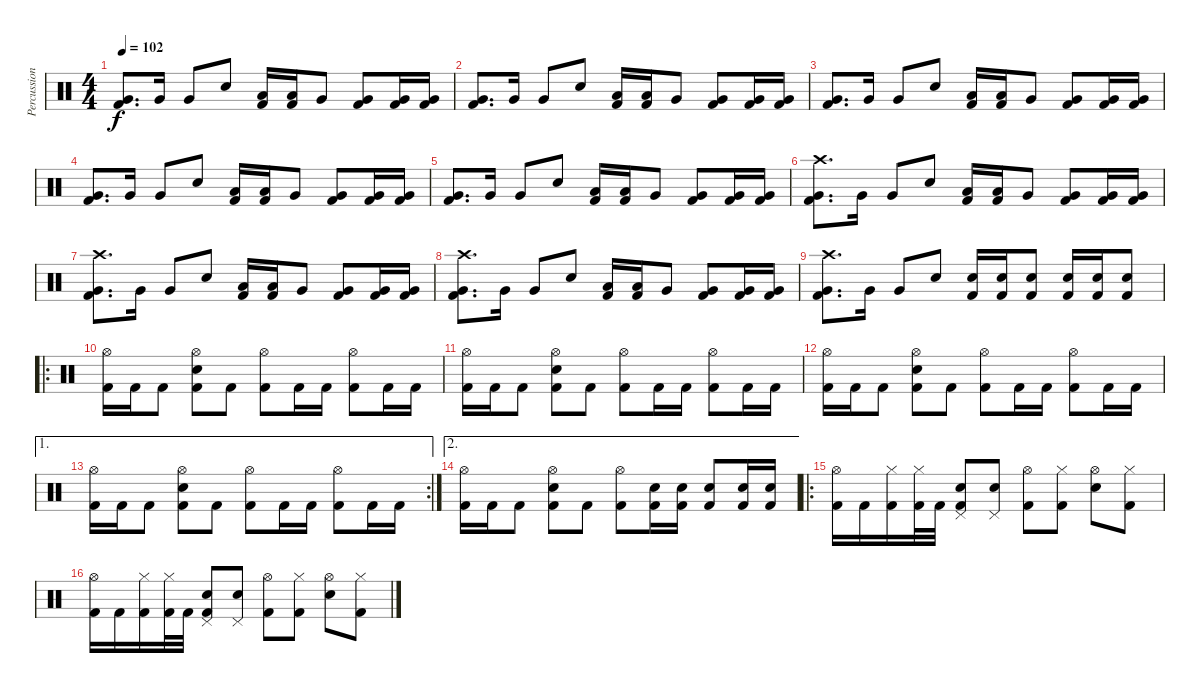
\track ("Percussion" "Percussion") {instrument percussion}
\staff {score}
\articulation defaults
\ts (4 4)
\tempo 102
\clef neutral
\ks c
("Very Low Tom (hit)" "Kick (hit) 2").8{d dy f} "Very Low Tom (hit)".16 "Very Low Tom (hit)".8 "Snare (hit) 2".8 ("Low Tom (hit)" "Kick (hit) 2").16 ("Low Tom (hit)" "Kick (hit) 2").16 "Very Low Tom (hit)".8 ("Very Low Tom (hit)" "Kick (hit) 2").8 ("Very Low Tom (hit)" "Kick (hit) 2").16 ("Very Low Tom (hit)" "Kick (hit) 2").16 |
("Very Low Tom (hit)" "Kick (hit) 2").8{d} "Very Low Tom (hit)".16 "Very Low Tom (hit)".8 "Snare (hit) 2".8 ("Low Tom (hit)" "Kick (hit) 2").16 ("Low Tom (hit)" "Kick (hit) 2").16 "Very Low Tom (hit)".8 ("Very Low Tom (hit)" "Kick (hit) 2").8 ("Very Low Tom (hit)" "Kick (hit) 2").16 ("Very Low Tom (hit)" "Kick (hit) 2").16 |
("Very Low Tom (hit)" "Kick (hit) 2").8{d} "Very Low Tom (hit)".16 "Very Low Tom (hit)".8 "Snare (hit) 2".8 ("Low Tom (hit)" "Kick (hit) 2").16 ("Low Tom (hit)" "Kick (hit) 2").16 "Very Low Tom (hit)".8 ("Very Low Tom (hit)" "Kick (hit) 2").8 ("Very Low Tom (hit)" "Kick (hit) 2").16 ("Very Low Tom (hit)" "Kick (hit) 2").16 |
("Very Low Tom (hit)" "Kick (hit) 2").8{d} "Very Low Tom (hit)".16 "Very Low Tom (hit)".8 "Snare (hit) 2".8 ("Low Tom (hit)" "Kick (hit) 2").16 ("Low Tom (hit)" "Kick (hit) 2").16 "Very Low Tom (hit)".8 ("Very Low Tom (hit)" "Kick (hit) 2").8 ("Very Low Tom (hit)" "Kick (hit) 2").16 ("Very Low Tom (hit)" "Kick (hit) 2").16 |
("Very Low Tom (hit)" "Kick (hit) 2").8{d} "Very Low Tom (hit)".16 "Very Low Tom (hit)".8 "Snare (hit) 2".8 ("Low Tom (hit)" "Kick (hit) 2").16 ("Low Tom (hit)" "Kick (hit) 2").16 "Very Low Tom (hit)".8 ("Very Low Tom (hit)" "Kick (hit) 2").8 ("Very Low Tom (hit)" "Kick (hit) 2").16 ("Very Low Tom (hit)" "Kick (hit) 2").16 |
("Crash high (hit)" "Very Low Tom (hit)" "Kick (hit) 2").8{d} "Very Low Tom (hit)".16 "Very Low Tom (hit)".8 "Snare (hit) 2".8 ("Low Tom (hit)" "Kick (hit) 2").16 ("Low Tom (hit)" "Kick (hit) 2").16 "Very Low Tom (hit)".8 ("Very Low Tom (hit)" "Kick (hit) 2").8 ("Very Low Tom (hit)" "Kick (hit) 2").16 ("Very Low Tom (hit)" "Kick (hit) 2").16 |
("Crash high (hit)" "Very Low Tom (hit)" "Kick (hit) 2").8{d} "Very Low Tom (hit)".16 "Very Low Tom (hit)".8 "Snare (hit) 2".8 ("Low Tom (hit)" "Kick (hit) 2").16 ("Low Tom (hit)" "Kick (hit) 2").16 "Very Low Tom (hit)".8 ("Very Low Tom (hit)" "Kick (hit) 2").8 ("Very Low Tom (hit)" "Kick (hit) 2").16 ("Very Low Tom (hit)" "Kick (hit) 2").16 |
("Crash high (hit)" "Very Low Tom (hit)" "Kick (hit) 2").8{d} "Very Low Tom (hit)".16 "Very Low Tom (hit)".8 "Snare (hit) 2".8 ("Low Tom (hit)" "Kick (hit) 2").16 ("Low Tom (hit)" "Kick (hit) 2").16 "Very Low Tom (hit)".8 ("Very Low Tom (hit)" "Kick (hit) 2").8 ("Very Low Tom (hit)" "Kick (hit) 2").16 ("Very Low Tom (hit)" "Kick (hit) 2").16 |
("Crash high (hit)" "Very Low Tom (hit)" "Kick (hit) 2").8{d} "Very Low Tom (hit)".16 "Very Low Tom (hit)".8 "Snare (hit) 2".8 ("Snare (hit) 2" "Kick (hit) 2").16 ("Snare (hit) 2" "Kick (hit) 2").16 ("Snare (hit) 2" "Kick (hit) 2").8 ("Snare (hit) 2" "Kick (hit) 2").16 ("Snare (hit) 2" "Kick (hit) 2").16 ("Snare (hit) 2" "Kick (hit) 2").8 |
\ro
("Hi-Hat (open)" "Kick (hit) 2").16 "Kick (hit) 2".16 "Kick (hit) 2".8 ("Hi-Hat (open)" "Snare (hit) 2" "Kick (hit) 2").8 "Kick (hit) 2".8 ("Hi-Hat (open)" "Kick (hit) 2").8 "Kick (hit) 2".16 "Kick (hit) 2".16 ("Hi-Hat (open)" "Kick (hit) 2").8 "Kick (hit) 2".16 "Kick (hit) 2".16 |
("Hi-Hat (open)" "Kick (hit) 2").16 "Kick (hit) 2".16 "Kick (hit) 2".8 ("Hi-Hat (open)" "Snare (hit) 2" "Kick (hit) 2").8 "Kick (hit) 2".8 ("Hi-Hat (open)" "Kick (hit) 2").8 "Kick (hit) 2".16 "Kick (hit) 2".16 ("Hi-Hat (open)" "Kick (hit) 2").8 "Kick (hit) 2".16 "Kick (hit) 2".16 |
("Hi-Hat (open)" "Kick (hit) 2").16 "Kick (hit) 2".16 "Kick (hit) 2".8 ("Hi-Hat (open)" "Snare (hit) 2" "Kick (hit) 2").8 "Kick (hit) 2".8 ("Hi-Hat (open)" "Kick (hit) 2").8 "Kick (hit) 2".16 "Kick (hit) 2".16 ("Hi-Hat (open)" "Kick (hit) 2").8 "Kick (hit) 2".16 "Kick (hit) 2".16 |
\ae 1
\rc 2
("Hi-Hat (open)" "Kick (hit) 2").16 "Kick (hit) 2".16 "Kick (hit) 2".8 ("Hi-Hat (open)" "Snare (hit) 2" "Kick (hit) 2").8 "Kick (hit) 2".8 ("Hi-Hat (open)" "Kick (hit) 2").8 "Kick (hit) 2".16 "Kick (hit) 2".16 ("Hi-Hat (open)" "Kick (hit) 2").8 "Kick (hit) 2".16 "Kick (hit) 2".16 |
\ae 2
("Hi-Hat (open)" "Kick (hit) 2").16 "Kick (hit) 2".16 "Kick (hit) 2".8 ("Hi-Hat (open)" "Snare (hit) 2" "Kick (hit) 2").8 "Kick (hit) 2".8 ("Hi-Hat (open)" "Kick (hit) 2").8 ("Snare (hit) 2" "Kick (hit) 2").16 ("Snare (hit) 2" "Kick (hit) 2").16 ("Snare (hit) 2" "Kick (hit) 2").8 ("Snare (hit) 2" "Kick (hit) 2").16 ("Snare (hit) 2" "Kick (hit) 2").16 |
\ro
("Hi-Hat (open)" "Kick (hit) 2").16 "Kick (hit) 2".16 ("Hi-Hat (closed)" "Kick (hit) 2").16 ("Hi-Hat (closed)" "Kick (hit) 2").32 "Kick (hit) 2".32 ("Pedal Hi-Hat (hit)" "Snare (hit) 2" "Kick (hit) 2").8 ("Pedal Hi-Hat (hit)" "Snare (hit) 2").8 ("Hi-Hat (open)" "Kick (hit) 2").8 ("Hi-Hat (closed)" "Kick (hit) 2").8 ("Hi-Hat (open)" "Snare (hit) 2").8 ("Hi-Hat (closed)" "Kick (hit) 2").8 |
("Hi-Hat (open)" "Kick (hit) 2").16 "Kick (hit) 2".16 ("Hi-Hat (closed)" "Kick (hit) 2").16 ("Hi-Hat (closed)" "Kick (hit) 2").32 "Kick (hit) 2".32 ("Pedal Hi-Hat (hit)" "Snare (hit) 2" "Kick (hit) 2").8 ("Pedal Hi-Hat (hit)" "Snare (hit) 2").8 ("Hi-Hat (open)" "Kick (hit) 2").8 ("Hi-Hat (closed)" "Kick (hit) 2").8 ("Hi-Hat (open)" "Snare (hit) 2").8 ("Hi-Hat (closed)" "Kick (hit) 2").8
